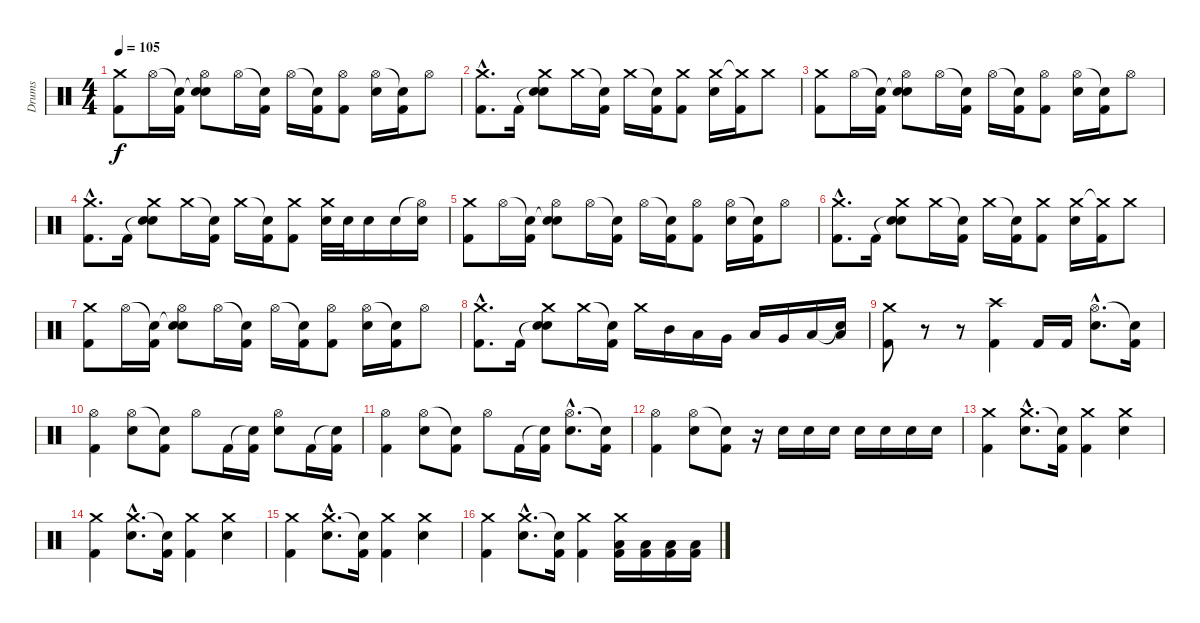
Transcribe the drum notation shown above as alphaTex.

\track ("Drums" "Drums") {instrument percussion}
\staff {score}
\articulation defaults
\ts (4 4)
\tempo 105
\clef neutral
\ks c
("Crash medium (hit)" "Kick (hit) 2").8{dy f} "Hi-Hat (open)".16 ("Snare (hit)"{t} "Kick (hit) 2").16 ("Snare (hit)"{t} "Hi-Hat (open)" "Electric Snare (hit)").8 "Hi-Hat (open)".16 ("Snare (hit)"{t} "Kick (hit) 2").16 "Hi-Hat (open)".16 ("Snare (hit)"{t} "Kick (hit) 2").16 ("Hi-Hat (open)" "Kick (hit) 2").8 ("Hi-Hat (open)" "Electric Snare (hit)").16 ("Snare (hit)"{t} "Kick (hit) 2").16 "Hi-Hat (open)".8 |
("Crash medium (hit)"{hac} "Kick (hit) 2"{hac}).8{d} "Kick (hit) 2".16 ("Snare (hit)"{t} "Crash medium (hit)" "Electric Snare (hit)").8 "Crash medium (hit)".16 ("Snare (hit)"{t} "Kick (hit) 2").16 "Crash medium (hit)".16 ("Snare (hit)"{t} "Kick (hit) 2").16 ("Crash medium (hit)" "Kick (hit) 2").8 ("Crash medium (hit)" "Electric Snare (hit)").16 ("Crash medium (hit)"{t} "Kick (hit) 2").16 "Crash medium (hit)".8 |
("Crash medium (hit)" "Kick (hit) 2").8 "Hi-Hat (open)".16 ("Snare (hit)"{t} "Kick (hit) 2").16 ("Snare (hit)"{t} "Hi-Hat (open)" "Electric Snare (hit)").8 "Hi-Hat (open)".16 ("Snare (hit)"{t} "Kick (hit) 2").16 "Hi-Hat (open)".16 ("Snare (hit)"{t} "Kick (hit) 2").16 ("Hi-Hat (open)" "Kick (hit) 2").8 ("Hi-Hat (open)" "Electric Snare (hit)").16 ("Snare (hit)"{t} "Kick (hit) 2").16 "Hi-Hat (open)".8 |
("Crash medium (hit)"{hac} "Kick (hit) 2"{hac}).8{d} "Kick (hit) 2".16 ("Snare (hit)"{t} "Crash medium (hit)" "Electric Snare (hit)").8 "Crash medium (hit)".16 ("Snare (hit)"{t} "Kick (hit) 2").16 "Crash medium (hit)".16 ("Snare (hit)"{t} "Kick (hit) 2").16 ("Crash medium (hit)" "Kick (hit) 2").8 ("Crash medium (hit)" "Electric Snare (hit)").32 "Electric Snare (hit)".32 "Electric Snare (hit)".16 "Electric Snare (hit)".16 ("Hi-Hat (open)"{t} "Electric Snare (hit)").16 |
("Crash medium (hit)" "Kick (hit) 2").8 "Hi-Hat (open)".16 ("Snare (hit)"{t} "Kick (hit) 2").16 ("Snare (hit)"{t} "Hi-Hat (open)" "Electric Snare (hit)").8 "Hi-Hat (open)".16 ("Snare (hit)"{t} "Kick (hit) 2").16 "Hi-Hat (open)".16 ("Snare (hit)"{t} "Kick (hit) 2").16 ("Hi-Hat (open)" "Kick (hit) 2").8 ("Hi-Hat (open)" "Electric Snare (hit)").16 ("Snare (hit)"{t} "Kick (hit) 2").16 "Hi-Hat (open)".8 |
("Crash medium (hit)"{hac} "Kick (hit) 2"{hac}).8{d} "Kick (hit) 2".16 ("Snare (hit)"{t} "Crash medium (hit)" "Electric Snare (hit)").8 "Crash medium (hit)".16 ("Snare (hit)"{t} "Kick (hit) 2").16 "Crash medium (hit)".16 ("Snare (hit)"{t} "Kick (hit) 2").16 ("Crash medium (hit)" "Kick (hit) 2").8 ("Crash medium (hit)" "Electric Snare (hit)").16 ("Crash medium (hit)"{t} "Kick (hit) 2").16 "Crash medium (hit)".8 |
("Crash medium (hit)" "Kick (hit) 2").8 "Hi-Hat (open)".16 ("Snare (hit)"{t} "Kick (hit) 2").16 ("Snare (hit)"{t} "Hi-Hat (open)" "Electric Snare (hit)").8 "Hi-Hat (open)".16 ("Snare (hit)"{t} "Kick (hit) 2").16 "Hi-Hat (open)".16 ("Snare (hit)"{t} "Kick (hit) 2").16 ("Hi-Hat (open)" "Kick (hit) 2").8 ("Hi-Hat (open)" "Electric Snare (hit)").16 ("Snare (hit)"{t} "Kick (hit) 2").16 "Hi-Hat (open)".8 |
("Crash medium (hit)"{hac} "Kick (hit) 2"{hac}).8{d} "Kick (hit) 2".16 ("Snare (hit)"{t} "Crash medium (hit)" "Electric Snare (hit)").8 "Crash medium (hit)".16 ("Snare (hit)"{t} "Kick (hit) 2").16 "Crash medium (hit)".16 "Mid Tom (hit)".16 "Low Tom (hit)".16 "Very Low Tom (hit)".16 "Low Tom (hit)".16 "Very Low Tom (hit)".16 "Low Floor Tom (hit)".16 ("Snare (hit)"{t} "Low Floor Tom (hit)").16 |
("Crash medium (hit)" "Kick (hit) 2").8 r.8 r.8 ("Crash high (hit)" "Kick (hit) 2").4 "Kick (hit) 2".16 "Kick (hit) 2".16 ("Hi-Hat (open)"{hac} "Electric Snare (hit)"{hac}).8{d} ("Snare (hit)"{t} "Kick (hit) 2").16 |
("Hi-Hat (open)" "Kick (hit) 2").4 ("Hi-Hat (open)" "Electric Snare (hit)").8 ("Snare (hit)"{t} "Kick (hit) 2").8 "Hi-Hat (open)".8 "Kick (hit) 2".16 ("Snare (hit)"{t} "Kick (hit) 2").16 ("Hi-Hat (open)" "Electric Snare (hit)").8 "Kick (hit) 2".16 ("Snare (hit)"{t} "Kick (hit) 2").16 |
("Hi-Hat (open)" "Kick (hit) 2").4 ("Hi-Hat (open)" "Electric Snare (hit)").8 ("Snare (hit)"{t} "Kick (hit) 2").8 "Hi-Hat (open)".8 "Kick (hit) 2".16 ("Snare (hit)"{t} "Kick (hit) 2").16 ("Hi-Hat (open)"{hac} "Electric Snare (hit)"{hac}).8{d} ("Snare (hit)"{t} "Kick (hit) 2").16 |
("Hi-Hat (open)" "Kick (hit) 2").4 ("Hi-Hat (open)" "Electric Snare (hit)").8 ("Snare (hit)"{t} "Kick (hit) 2").8 r.16 "Electric Snare (hit)".16 "Electric Snare (hit)".16 "Electric Snare (hit)".16 "Electric Snare (hit)".16 "Electric Snare (hit)".16 "Electric Snare (hit)".16 "Electric Snare (hit)".16 |
("Crash medium (hit)" "Kick (hit) 2").4 ("Crash medium (hit)"{hac} "Electric Snare (hit)"{hac}).8{d} ("Snare (hit)"{t} "Kick (hit) 2").16 ("Crash medium (hit)" "Kick (hit) 2").4 ("Crash medium (hit)" "Electric Snare (hit)").4 |
("Crash medium (hit)" "Kick (hit) 2").4 ("Crash medium (hit)"{hac} "Electric Snare (hit)"{hac}).8{d} ("Snare (hit)"{t} "Kick (hit) 2").16 ("Crash medium (hit)" "Kick (hit) 2").4 ("Crash medium (hit)" "Electric Snare (hit)").4 |
("Crash medium (hit)" "Kick (hit) 2").4 ("Crash medium (hit)"{hac} "Electric Snare (hit)"{hac}).8{d} ("Snare (hit)"{t} "Kick (hit) 2").16 ("Crash medium (hit)" "Kick (hit) 2").4 ("Crash medium (hit)" "Electric Snare (hit)").4 |
("Crash medium (hit)" "Kick (hit) 2").4 ("Crash medium (hit)"{hac} "Electric Snare (hit)"{hac}).8{d} ("Snare (hit)"{t} "Kick (hit) 2").16 ("Crash medium (hit)" "Kick (hit) 2").4 ("Crash medium (hit)" "Low Floor Tom (hit)" "Kick (hit) 2").16 ("Low Floor Tom (hit)" "Kick (hit) 2").16 ("Low Floor Tom (hit)" "Kick (hit) 2").16 ("Low Floor Tom (hit)" "Kick (hit) 2").16
